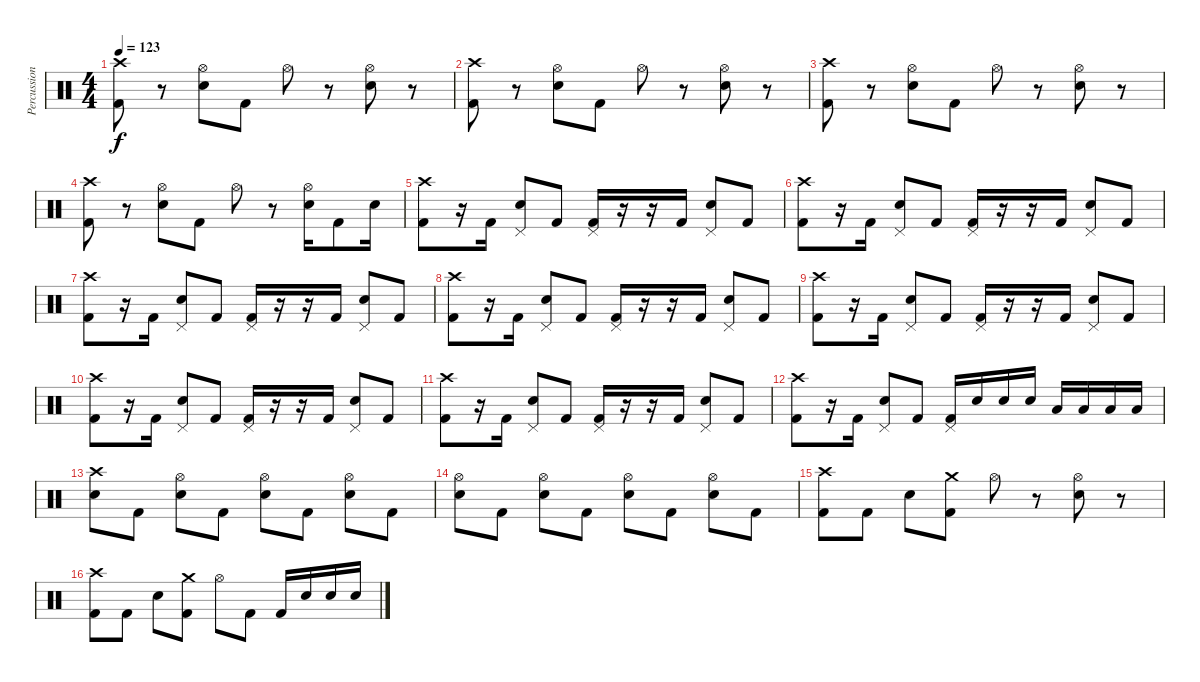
\track ("Percussioni" "Percussion") {instrument percussion}
\staff {score}
\articulation defaults
\ts (4 4)
\tempo 123
\clef neutral
\ks c
("Crash high (hit)" "Kick (hit) 2").8{dy f} r.8 ("Hi-Hat (open)" "Electric Snare (hit)").8 "Kick (hit) 2".8 "Hi-Hat (open)".8 r.8 ("Hi-Hat (open)" "Electric Snare (hit)").8 r.8 |
("Crash high (hit)" "Kick (hit) 2").8 r.8 ("Hi-Hat (open)" "Electric Snare (hit)").8 "Kick (hit) 2".8 "Hi-Hat (open)".8 r.8 ("Hi-Hat (open)" "Electric Snare (hit)").8 r.8 |
("Crash high (hit)" "Kick (hit) 2").8 r.8 ("Hi-Hat (open)" "Electric Snare (hit)").8 "Kick (hit) 2".8 "Hi-Hat (open)".8 r.8 ("Hi-Hat (open)" "Electric Snare (hit)").8 r.8 |
("Crash high (hit)" "Kick (hit) 2").8 r.8 ("Hi-Hat (open)" "Electric Snare (hit)").8 "Kick (hit) 2".8 "Hi-Hat (open)".8 r.8 ("Hi-Hat (open)" "Electric Snare (hit)").16 "Kick (hit) 2".8 "Electric Snare (hit)".16 |
("Crash high (hit)" "Kick (hit) 2").8 r.16 "Kick (hit) 2".16 ("Pedal Hi-Hat (hit)" "Electric Snare (hit)").8 "Kick (hit) 2".8 ("Pedal Hi-Hat (hit)" "Kick (hit) 2").16 r.16 r.16 "Kick (hit) 2".16 ("Pedal Hi-Hat (hit)" "Electric Snare (hit)").8 "Kick (hit) 2".8 |
("Crash high (hit)" "Kick (hit) 2").8 r.16 "Kick (hit) 2".16 ("Pedal Hi-Hat (hit)" "Electric Snare (hit)").8 "Kick (hit) 2".8 ("Pedal Hi-Hat (hit)" "Kick (hit) 2").16 r.16 r.16 "Kick (hit) 2".16 ("Pedal Hi-Hat (hit)" "Electric Snare (hit)").8 "Kick (hit) 2".8 |
("Crash high (hit)" "Kick (hit) 2").8 r.16 "Kick (hit) 2".16 ("Pedal Hi-Hat (hit)" "Electric Snare (hit)").8 "Kick (hit) 2".8 ("Pedal Hi-Hat (hit)" "Kick (hit) 2").16 r.16 r.16 "Kick (hit) 2".16 ("Pedal Hi-Hat (hit)" "Electric Snare (hit)").8 "Kick (hit) 2".8 |
("Crash high (hit)" "Kick (hit) 2").8 r.16 "Kick (hit) 2".16 ("Pedal Hi-Hat (hit)" "Electric Snare (hit)").8 "Kick (hit) 2".8 ("Pedal Hi-Hat (hit)" "Kick (hit) 2").16 r.16 r.16 "Kick (hit) 2".16 ("Pedal Hi-Hat (hit)" "Electric Snare (hit)").8 "Kick (hit) 2".8 |
("Crash high (hit)" "Kick (hit) 2").8 r.16 "Kick (hit) 2".16 ("Pedal Hi-Hat (hit)" "Electric Snare (hit)").8 "Kick (hit) 2".8 ("Pedal Hi-Hat (hit)" "Kick (hit) 2").16 r.16 r.16 "Kick (hit) 2".16 ("Pedal Hi-Hat (hit)" "Electric Snare (hit)").8 "Kick (hit) 2".8 |
("Crash high (hit)" "Kick (hit) 2").8 r.16 "Kick (hit) 2".16 ("Pedal Hi-Hat (hit)" "Electric Snare (hit)").8 "Kick (hit) 2".8 ("Pedal Hi-Hat (hit)" "Kick (hit) 2").16 r.16 r.16 "Kick (hit) 2".16 ("Pedal Hi-Hat (hit)" "Electric Snare (hit)").8 "Kick (hit) 2".8 |
("Crash high (hit)" "Kick (hit) 2").8 r.16 "Kick (hit) 2".16 ("Pedal Hi-Hat (hit)" "Electric Snare (hit)").8 "Kick (hit) 2".8 ("Pedal Hi-Hat (hit)" "Kick (hit) 2").16 r.16 r.16 "Kick (hit) 2".16 ("Pedal Hi-Hat (hit)" "Electric Snare (hit)").8 "Kick (hit) 2".8 |
("Crash high (hit)" "Kick (hit) 2").8 r.16 "Kick (hit) 2".16 ("Pedal Hi-Hat (hit)" "Electric Snare (hit)").8 "Kick (hit) 2".8 ("Pedal Hi-Hat (hit)" "Kick (hit) 2").16 "Electric Snare (hit)".16 "Electric Snare (hit)".16 "Electric Snare (hit)".16 "Low Tom (hit)".16 "Low Tom (hit)".16 "Low Tom (hit)".16 "Low Tom (hit)".16 |
("Crash high (hit)" "Electric Snare (hit)").8 "Kick (hit) 2".8 ("Hi-Hat (open)" "Electric Snare (hit)").8 "Kick (hit) 2".8 ("Hi-Hat (open)" "Electric Snare (hit)").8 "Kick (hit) 2".8 ("Hi-Hat (open)" "Electric Snare (hit)").8 "Kick (hit) 2".8 |
("Hi-Hat (open)" "Electric Snare (hit)").8 "Kick (hit) 2".8 ("Hi-Hat (open)" "Electric Snare (hit)").8 "Kick (hit) 2".8 ("Hi-Hat (open)" "Electric Snare (hit)").8 "Kick (hit) 2".8 ("Hi-Hat (open)" "Electric Snare (hit)").8 "Kick (hit) 2".8 |
("Crash high (hit)" "Kick (hit) 2").8 "Kick (hit) 2".8 "Electric Snare (hit)".8 ("Crash medium (hit)" "Kick (hit) 2").8 "Hi-Hat (open)".8 r.8 ("Hi-Hat (open)" "Electric Snare (hit)").8 r.8 |
("Crash high (hit)" "Kick (hit) 2").8 "Kick (hit) 2".8 "Electric Snare (hit)".8 ("Crash medium (hit)" "Kick (hit) 2").8 "Hi-Hat (open)".8 "Kick (hit) 2".8 "Kick (hit) 2".16 "Electric Snare (hit)".16 "Electric Snare (hit)".16 "Electric Snare (hit)".16
